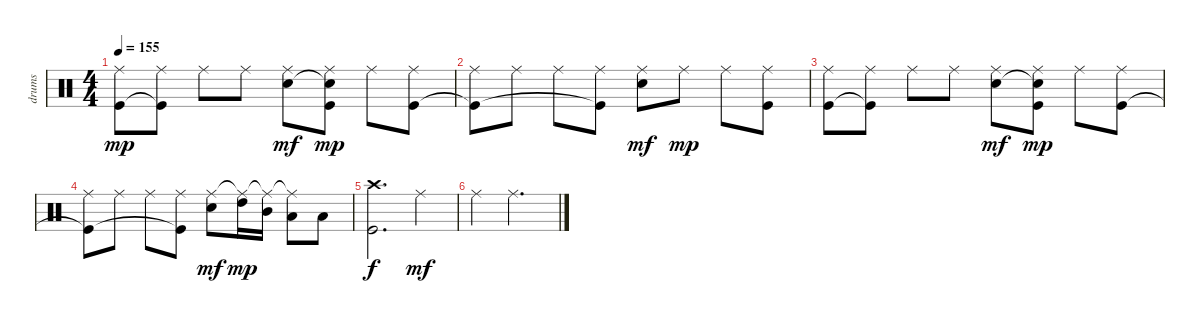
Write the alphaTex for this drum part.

\track ("drums" "drums") {instrument percussion}
\staff {score}
\articulation defaults
\ts (4 4)
\tempo 155
\clef neutral
\ks c
("Ride (middle)" "Kick (hit)").8{dy mp} ("Ride (middle)" "Kick (hit)"{t}).8 "Ride (middle)".8 "Ride (middle)".8 ("Ride (middle)" "Electric Snare (hit)").8{dy mf} ("Ride (middle)" "Electric Snare (hit)"{t} "Kick (hit)").8{dy mp} "Ride (middle)".8 ("Ride (middle)" "Kick (hit)").8 |
("Ride (middle)" "Kick (hit)"{t}).8 "Ride (middle)".8 "Ride (middle)".8 ("Ride (middle)" "Kick (hit)"{t}).8 ("Ride (middle)" "Electric Snare (hit)").8{dy mf} "Ride (middle)".8{dy mp} "Ride (middle)".8 ("Ride (middle)" "Kick (hit)").8 |
("Ride (middle)" "Kick (hit)").8 ("Ride (middle)" "Kick (hit)"{t}).8 "Ride (middle)".8 "Ride (middle)".8 ("Ride (middle)" "Electric Snare (hit)").8{dy mf} ("Ride (middle)" "Electric Snare (hit)"{t} "Kick (hit)").8{dy mp} "Ride (middle)".8 ("Ride (middle)" "Kick (hit)").8 |
("Ride (middle)" "Kick (hit)"{t}).8 "Ride (middle)".8 "Ride (middle)".8 ("Ride (middle)" "Kick (hit)"{t}).8 ("Ride (middle)" "Electric Snare (hit)").8{dy mf} ("Ride (middle)"{t} "High Tom (hit)").16{dy mp} ("Ride (middle)"{t} "Mid Tom (hit)").16 ("Ride (middle)"{t} "Low Tom (hit)").8 "Low Floor Tom (hit)".8 |
("Crash high (hit)" "Kick (hit)").2{d dy f} "Ride (middle)".4{dy mf} |
"Ride (middle)".4 "Ride (middle)".2{d}
